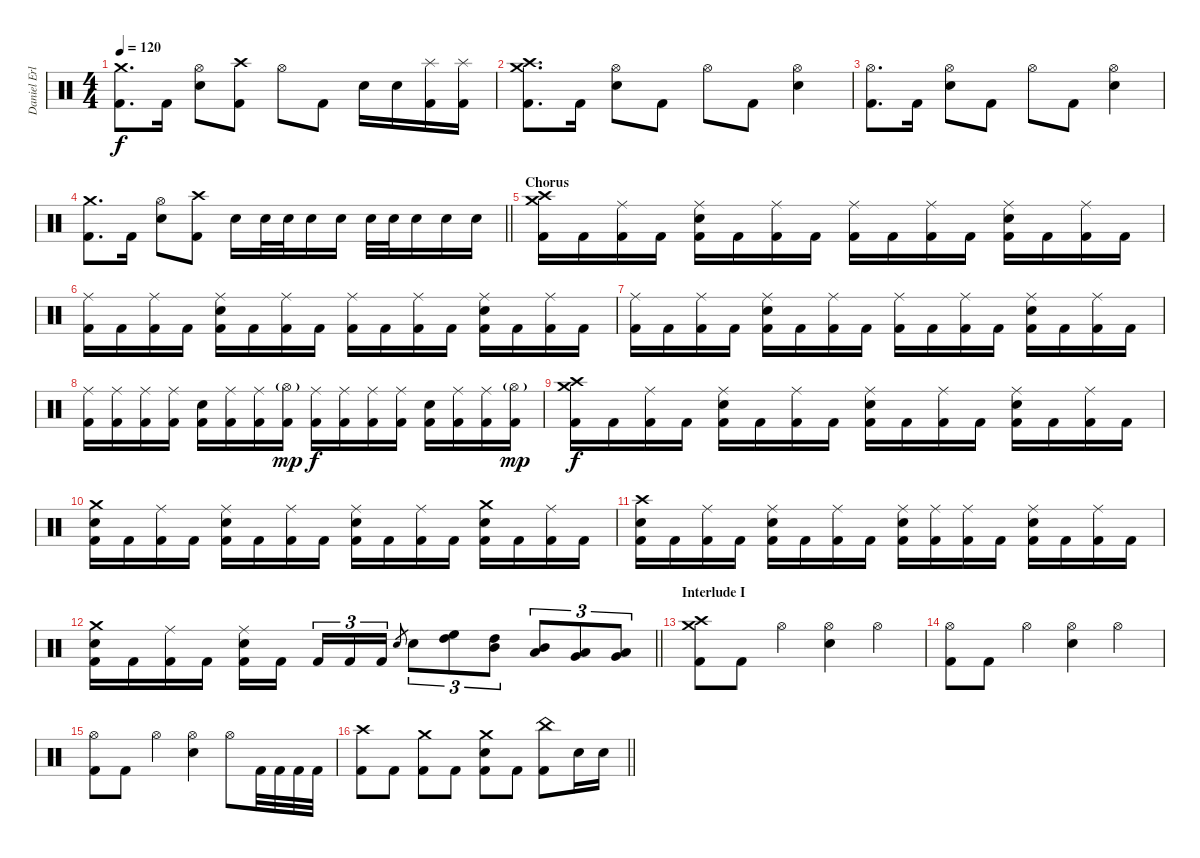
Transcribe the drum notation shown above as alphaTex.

\track ("Daniel Erlandson (Drums)" "Daniel Erl") {instrument percussion}
\staff {score}
\articulation defaults
\ts (4 4)
\tempo 120
\clef neutral
\ks c
("Crash medium (hit)" "Kick (hit) 2").8{d dy f} "Kick (hit) 2".16 ("Hi-Hat (open)" "Electric Snare (hit)").8 ("Crash high (hit)" "Kick (hit) 2").8 "Hi-Hat (open)".8 "Kick (hit) 2".8 "Electric Snare (hit)".16 "Electric Snare (hit)".16 ("Splash (hit)" "Kick (hit) 2").16 ("Splash (hit)" "Kick (hit) 2").16 |
("Crash medium (hit)" "Crash high (hit)" "Kick (hit) 2").8{d} "Kick (hit) 2".16 ("Hi-Hat (open)" "Electric Snare (hit)").8 "Kick (hit) 2".8 "Hi-Hat (open)".8 "Kick (hit) 2".8 ("Hi-Hat (open)" "Electric Snare (hit)").4 |
("Hi-Hat (open)" "Kick (hit) 2").8{d} "Kick (hit) 2".16 ("Hi-Hat (open)" "Electric Snare (hit)").8 "Kick (hit) 2".8 "Hi-Hat (open)".8 "Kick (hit) 2".8 ("Hi-Hat (open)" "Electric Snare (hit)").4 |
\barLineRight lightlight
("Crash medium (hit)" "Kick (hit) 2").8{d} "Kick (hit) 2".16 ("Hi-Hat (open)" "Electric Snare (hit)").8 ("Crash high (hit)" "Kick (hit) 2").8 "Electric Snare (hit)".16 "Electric Snare (hit)".32 "Electric Snare (hit)".32 "Electric Snare (hit)".16 "Electric Snare (hit)".16 "Electric Snare (hit)".32 "Electric Snare (hit)".32 "Electric Snare (hit)".16 "Electric Snare (hit)".16 "Electric Snare (hit)".16 |
\section ("" "Chorus")
("Crash medium (hit)" "Crash high (hit)" "Kick (hit) 2").16 "Kick (hit) 2".16 ("Ride (middle)" "Kick (hit) 2").16 "Kick (hit) 2".16 ("Ride (middle)" "Electric Snare (hit)" "Kick (hit) 2").16 "Kick (hit) 2".16 ("Ride (middle)" "Kick (hit) 2").16 "Kick (hit) 2".16 ("Ride (middle)" "Kick (hit) 2").16 "Kick (hit) 2".16 ("Ride (middle)" "Kick (hit) 2").16 "Kick (hit) 2".16 ("Ride (middle)" "Electric Snare (hit)" "Kick (hit) 2").16 "Kick (hit) 2".16 ("Ride (middle)" "Kick (hit) 2").16 "Kick (hit) 2".16 |
("Ride (middle)" "Kick (hit) 2").16 "Kick (hit) 2".16 ("Ride (middle)" "Kick (hit) 2").16 "Kick (hit) 2".16 ("Ride (middle)" "Electric Snare (hit)" "Kick (hit) 2").16 "Kick (hit) 2".16 ("Ride (middle)" "Kick (hit) 2").16 "Kick (hit) 2".16 ("Ride (middle)" "Kick (hit) 2").16 "Kick (hit) 2".16 ("Ride (middle)" "Kick (hit) 2").16 "Kick (hit) 2".16 ("Ride (middle)" "Electric Snare (hit)" "Kick (hit) 2").16 "Kick (hit) 2".16 ("Ride (middle)" "Kick (hit) 2").16 "Kick (hit) 2".16 |
("Ride (middle)" "Kick (hit) 2").16 "Kick (hit) 2".16 ("Ride (middle)" "Kick (hit) 2").16 "Kick (hit) 2".16 ("Ride (middle)" "Electric Snare (hit)" "Kick (hit) 2").16 "Kick (hit) 2".16 ("Ride (middle)" "Kick (hit) 2").16 "Kick (hit) 2".16 ("Ride (middle)" "Kick (hit) 2").16 "Kick (hit) 2".16 ("Ride (middle)" "Kick (hit) 2").16 "Kick (hit) 2".16 ("Ride (middle)" "Electric Snare (hit)" "Kick (hit) 2").16 "Kick (hit) 2".16 ("Ride (middle)" "Kick (hit) 2").16 "Kick (hit) 2".16 |
("Ride (middle)" "Kick (hit) 2").16 ("Ride (middle)" "Kick (hit) 2").16 ("Ride (middle)" "Kick (hit) 2").16 ("Ride (middle)" "Kick (hit) 2").16 ("Electric Snare (hit)" "Kick (hit) 2").16 ("Ride (middle)" "Kick (hit) 2").16 ("Ride (middle)" "Kick (hit) 2").16 ("Hi-Hat (open)"{g} "Kick (hit) 2").16{dy mp} ("Ride (middle)" "Kick (hit) 2").16{dy f} ("Ride (middle)" "Kick (hit) 2").16 ("Ride (middle)" "Kick (hit) 2").16 ("Ride (middle)" "Kick (hit) 2").16 ("Electric Snare (hit)" "Kick (hit) 2").16 ("Ride (middle)" "Kick (hit) 2").16 ("Ride (middle)" "Kick (hit) 2").16 ("Hi-Hat (open)"{g} "Kick (hit) 2").16{dy mp} |
("Crash medium (hit)" "Crash high (hit)" "Kick (hit) 2").16{dy f} "Kick (hit) 2".16 ("Ride (middle)" "Kick (hit) 2").16 "Kick (hit) 2".16 ("Ride (middle)" "Electric Snare (hit)" "Kick (hit) 2").16 "Kick (hit) 2".16 ("Ride (middle)" "Kick (hit) 2").16 "Kick (hit) 2".16 ("Ride (middle)" "Electric Snare (hit)" "Kick (hit) 2").16 "Kick (hit) 2".16 ("Ride (middle)" "Kick (hit) 2").16 "Kick (hit) 2".16 ("Ride (middle)" "Electric Snare (hit)" "Kick (hit) 2").16 "Kick (hit) 2".16 ("Ride (middle)" "Kick (hit) 2").16 "Kick (hit) 2".16 |
("Crash medium (hit)" "Electric Snare (hit)" "Kick (hit) 2").16 "Kick (hit) 2".16 ("Ride (middle)" "Kick (hit) 2").16 "Kick (hit) 2".16 ("Ride (middle)" "Electric Snare (hit)" "Kick (hit) 2").16 "Kick (hit) 2".16 ("Ride (middle)" "Kick (hit) 2").16 "Kick (hit) 2".16 ("Ride (middle)" "Electric Snare (hit)" "Kick (hit) 2").16 "Kick (hit) 2".16 ("Ride (middle)" "Kick (hit) 2").16 "Kick (hit) 2".16 ("Crash medium (hit)" "Electric Snare (hit)" "Kick (hit) 2").16 "Kick (hit) 2".16 ("Ride (middle)" "Kick (hit) 2").16 "Kick (hit) 2".16 |
("Crash high (hit)" "Electric Snare (hit)" "Kick (hit) 2").16 "Kick (hit) 2".16 ("Ride (middle)" "Kick (hit) 2").16 "Kick (hit) 2".16 ("Ride (middle)" "Electric Snare (hit)" "Kick (hit) 2").16 "Kick (hit) 2".16 ("Ride (middle)" "Kick (hit) 2").16 "Kick (hit) 2".16 ("Ride (middle)" "Electric Snare (hit)" "Kick (hit) 2").16 ("Ride (middle)" "Kick (hit) 2").16 ("Ride (middle)" "Kick (hit) 2").16 "Kick (hit) 2".16 ("Ride (middle)" "Electric Snare (hit)" "Kick (hit) 2").16 "Kick (hit) 2".16 ("Ride (middle)" "Kick (hit) 2").16 "Kick (hit) 2".16 |
\barLineRight lightlight
("Crash medium (hit)" "Electric Snare (hit)" "Kick (hit) 2").16 "Kick (hit) 2".16 ("Ride (middle)" "Kick (hit) 2").16 "Kick (hit) 2".16 ("Ride (middle)" "Electric Snare (hit)" "Kick (hit) 2").16 "Kick (hit) 2".16{beam splitsecondary} "Kick (hit) 2".16{tu (3 2)} "Kick (hit) 2".16{tu (3 2)} "Kick (hit) 2".16{tu (3 2)} "Electric Snare (hit)".8{gr} "Electric Snare (hit)".8{tu (3 2)} ("High Floor Tom (hit)" "High Tom (hit)").8{tu (3 2) beam merge} ("High Tom (hit)" "Mid Tom (hit)").8{tu (3 2)} ("Mid Tom (hit)" "Low Tom (hit)").8{tu (3 2)} ("Low Tom (hit)" "Very Low Tom (hit)").8{tu (3 2)} ("Very Low Tom (hit)" "Low Floor Tom (hit)").8{tu (3 2)} |
\section ("" "Interlude I")
("Crash medium (hit)" "Crash high (hit)" "Kick (hit) 2").8 "Kick (hit) 2".8 "Hi-Hat (open)".4 ("Hi-Hat (open)" "Electric Snare (hit)").4 "Hi-Hat (open)".4 |
("Hi-Hat (open)" "Kick (hit) 2").8 "Kick (hit) 2".8 "Hi-Hat (open)".4 ("Hi-Hat (open)" "Electric Snare (hit)").4 "Hi-Hat (open)".4 |
("Hi-Hat (open)" "Kick (hit) 2").8 "Kick (hit) 2".8 "Hi-Hat (open)".4 ("Hi-Hat (open)" "Electric Snare (hit)").4 "Hi-Hat (open)".8 "Kick (hit) 2".32 "Kick (hit) 2".32 "Kick (hit) 2".32 "Kick (hit) 2".32 |
\barLineRight lightlight
("Crash high (hit)" "Kick (hit) 2").8 "Kick (hit) 2".8 ("Crash medium (hit)" "Kick (hit) 2").8 "Kick (hit) 2".8 ("Crash medium (hit)" "Electric Snare (hit)" "Kick (hit) 2").8 "Kick (hit) 2".8 ("China (hit)" "Kick (hit) 2").8 "Electric Snare (hit)".16 "Electric Snare (hit)".16
